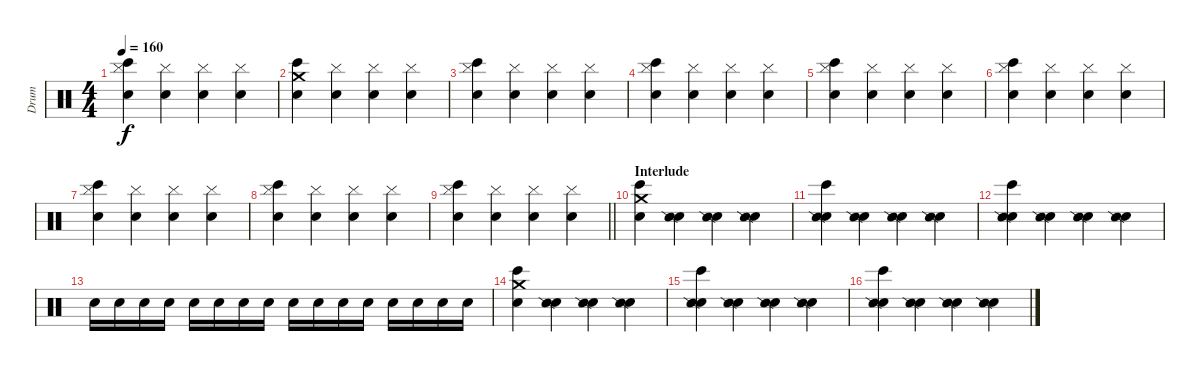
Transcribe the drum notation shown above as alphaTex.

\track ("Drum" "Drum") {instrument percussion}
\staff {score}
\articulation defaults
\ts (4 4)
\tempo 160
\clef neutral
\ks c
("Electric Snare (hit)" "Bongo High (hit)" "Cymbal (hit)").4{dy f} ("Electric Snare (hit)" "Cymbal (hit)").4 ("Electric Snare (hit)" "Cymbal (hit)").4 ("Electric Snare (hit)" "Cymbal (hit)").4 |
("Electric Snare (hit)" "Bongo High (hit)" "Crash medium (hit)").4 ("Electric Snare (hit)" "Cymbal (hit)").4 ("Electric Snare (hit)" "Cymbal (hit)").4 ("Electric Snare (hit)" "Cymbal (hit)").4 |
("Electric Snare (hit)" "Bongo High (hit)" "Cymbal (hit)").4 ("Electric Snare (hit)" "Cymbal (hit)").4 ("Electric Snare (hit)" "Cymbal (hit)").4 ("Electric Snare (hit)" "Cymbal (hit)").4 |
("Electric Snare (hit)" "Bongo High (hit)" "Cymbal (hit)").4 ("Electric Snare (hit)" "Cymbal (hit)").4 ("Electric Snare (hit)" "Cymbal (hit)").4 ("Electric Snare (hit)" "Cymbal (hit)").4 |
("Electric Snare (hit)" "Bongo High (hit)" "Cymbal (hit)").4 ("Electric Snare (hit)" "Cymbal (hit)").4 ("Electric Snare (hit)" "Cymbal (hit)").4 ("Electric Snare (hit)" "Cymbal (hit)").4 |
("Electric Snare (hit)" "Bongo High (hit)" "Cymbal (hit)").4 ("Electric Snare (hit)" "Cymbal (hit)").4 ("Electric Snare (hit)" "Cymbal (hit)").4 ("Electric Snare (hit)" "Cymbal (hit)").4 |
("Electric Snare (hit)" "Bongo High (hit)" "Cymbal (hit)").4 ("Electric Snare (hit)" "Cymbal (hit)").4 ("Electric Snare (hit)" "Cymbal (hit)").4 ("Electric Snare (hit)" "Cymbal (hit)").4 |
("Electric Snare (hit)" "Bongo High (hit)" "Cymbal (hit)").4 ("Electric Snare (hit)" "Cymbal (hit)").4 ("Electric Snare (hit)" "Cymbal (hit)").4 ("Electric Snare (hit)" "Cymbal (hit)").4 |
\barLineRight lightlight
("Electric Snare (hit)" "Bongo High (hit)" "Cymbal (hit)").4 ("Electric Snare (hit)" "Cymbal (hit)").4 ("Electric Snare (hit)" "Cymbal (hit)").4 ("Electric Snare (hit)" "Cymbal (hit)").4 |
\section ("" "Interlude")
("Electric Snare (hit)" "Bongo High (hit)" "Crash medium (hit)").4 ("Electric Snare (hit)" "Snare (side stick) 2").4 ("Electric Snare (hit)" "Snare (side stick) 2").4 ("Electric Snare (hit)" "Snare (side stick) 2").4 |
("Electric Snare (hit)" "Bongo High (hit)" "Snare (side stick) 2").4 ("Electric Snare (hit)" "Snare (side stick) 2").4 ("Electric Snare (hit)" "Snare (side stick) 2").4 ("Electric Snare (hit)" "Snare (side stick) 2").4 |
("Electric Snare (hit)" "Bongo High (hit)" "Snare (side stick) 2").4 ("Electric Snare (hit)" "Snare (side stick) 2").4 ("Electric Snare (hit)" "Snare (side stick) 2").4 ("Electric Snare (hit)" "Snare (side stick) 2").4 |
"Electric Snare (hit)".16 "Electric Snare (hit)".16 "Electric Snare (hit)".16 "Electric Snare (hit)".16 "Electric Snare (hit)".16 "Electric Snare (hit)".16 "Electric Snare (hit)".16 "Electric Snare (hit)".16 "Electric Snare (hit)".16 "Electric Snare (hit)".16 "Electric Snare (hit)".16 "Electric Snare (hit)".16 "Electric Snare (hit)".16 "Electric Snare (hit)".16 "Electric Snare (hit)".16 "Electric Snare (hit)".16 |
("Electric Snare (hit)" "Bongo High (hit)" "Crash medium (hit)").4 ("Electric Snare (hit)" "Snare (side stick) 2").4 ("Electric Snare (hit)" "Snare (side stick) 2").4 ("Electric Snare (hit)" "Snare (side stick) 2").4 |
("Electric Snare (hit)" "Bongo High (hit)" "Snare (side stick) 2").4 ("Electric Snare (hit)" "Snare (side stick) 2").4 ("Electric Snare (hit)" "Snare (side stick) 2").4 ("Electric Snare (hit)" "Snare (side stick) 2").4 |
("Electric Snare (hit)" "Bongo High (hit)" "Snare (side stick) 2").4 ("Electric Snare (hit)" "Snare (side stick) 2").4 ("Electric Snare (hit)" "Snare (side stick) 2").4 ("Electric Snare (hit)" "Snare (side stick) 2").4
